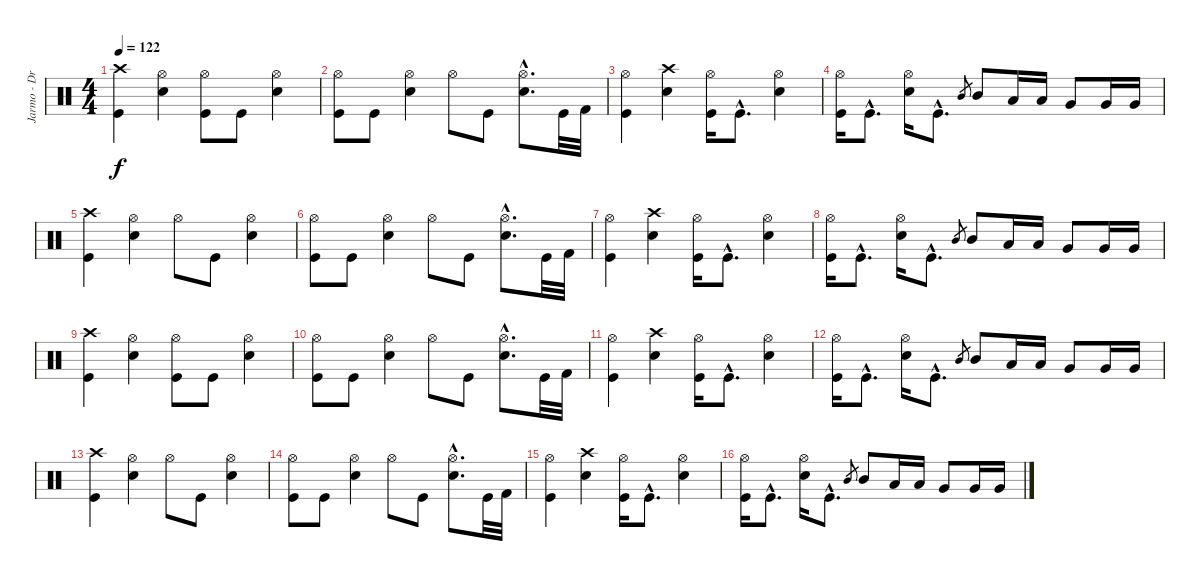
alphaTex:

\track ("Jarmo - Drums" "Jarmo - Dr") {instrument percussion}
\staff {score}
\articulation defaults
\ts (4 4)
\tempo 122
\clef neutral
\ks c
("Crash high (hit)" "Kick (hit)").4{dy f} ("Hi-Hat (open)" "Electric Snare (hit)").4 ("Hi-Hat (open)" "Kick (hit)").8 "Kick (hit)".8 ("Hi-Hat (open)" "Electric Snare (hit)").4 |
("Hi-Hat (open)" "Kick (hit)").8 "Kick (hit)".8 ("Hi-Hat (open)" "Electric Snare (hit)").4 "Hi-Hat (open)".8 "Kick (hit)".8 ("Hi-Hat (open)"{hac} "Electric Snare (hit)"{hac}).8{d} "Kick (hit)".32 "Kick (hit) 2".32 |
("Hi-Hat (open)" "Kick (hit)").4 ("Crash high (hit)" "Electric Snare (hit)").4 ("Hi-Hat (open)" "Kick (hit)").16 "Kick (hit)"{hac}.8{d} ("Hi-Hat (open)" "Electric Snare (hit)").4 |
("Hi-Hat (open)" "Kick (hit)").16 "Kick (hit)"{hac}.8{d} ("Hi-Hat (open)" "Electric Snare (hit)").16 "Kick (hit)"{hac}.8{d} "Mid Tom (hit)".8{gr} "Mid Tom (hit)".8 "Low Tom (hit)".16 "Low Tom (hit)".16 "Very Low Tom (hit)".8 "Very Low Tom (hit)".16 "Very Low Tom (hit)".16 |
("Crash high (hit)" "Kick (hit)").4 ("Hi-Hat (open)" "Electric Snare (hit)").4 "Hi-Hat (open)".8 "Kick (hit)".8 ("Hi-Hat (open)" "Electric Snare (hit)").4 |
("Hi-Hat (open)" "Kick (hit)").8 "Kick (hit)".8 ("Hi-Hat (open)" "Electric Snare (hit)").4 "Hi-Hat (open)".8 "Kick (hit)".8 ("Hi-Hat (open)"{hac} "Electric Snare (hit)"{hac}).8{d} "Kick (hit)".32 "Kick (hit) 2".32 |
("Hi-Hat (open)" "Kick (hit)").4 ("Crash high (hit)" "Electric Snare (hit)").4 ("Hi-Hat (open)" "Kick (hit)").16 "Kick (hit)"{hac}.8{d} ("Hi-Hat (open)" "Electric Snare (hit)").4 |
("Hi-Hat (open)" "Kick (hit)").16 "Kick (hit)"{hac}.8{d} ("Hi-Hat (open)" "Electric Snare (hit)").16 "Kick (hit)"{hac}.8{d} "Mid Tom (hit)".8{gr} "Mid Tom (hit)".8 "Low Tom (hit)".16 "Low Tom (hit)".16 "Very Low Tom (hit)".8 "Very Low Tom (hit)".16 "Very Low Tom (hit)".16 |
("Crash high (hit)" "Kick (hit)").4 ("Hi-Hat (open)" "Electric Snare (hit)").4 ("Hi-Hat (open)" "Kick (hit)").8 "Kick (hit)".8 ("Hi-Hat (open)" "Electric Snare (hit)").4 |
("Hi-Hat (open)" "Kick (hit)").8 "Kick (hit)".8 ("Hi-Hat (open)" "Electric Snare (hit)").4 "Hi-Hat (open)".8 "Kick (hit)".8 ("Hi-Hat (open)"{hac} "Electric Snare (hit)"{hac}).8{d} "Kick (hit)".32 "Kick (hit) 2".32 |
("Hi-Hat (open)" "Kick (hit)").4 ("Crash high (hit)" "Electric Snare (hit)").4 ("Hi-Hat (open)" "Kick (hit)").16 "Kick (hit)"{hac}.8{d} ("Hi-Hat (open)" "Electric Snare (hit)").4 |
("Hi-Hat (open)" "Kick (hit)").16 "Kick (hit)"{hac}.8{d} ("Hi-Hat (open)" "Electric Snare (hit)").16 "Kick (hit)"{hac}.8{d} "Mid Tom (hit)".8{gr} "Mid Tom (hit)".8 "Low Tom (hit)".16 "Low Tom (hit)".16 "Very Low Tom (hit)".8 "Very Low Tom (hit)".16 "Very Low Tom (hit)".16 |
("Crash high (hit)" "Kick (hit)").4 ("Hi-Hat (open)" "Electric Snare (hit)").4 "Hi-Hat (open)".8 "Kick (hit)".8 ("Hi-Hat (open)" "Electric Snare (hit)").4 |
("Hi-Hat (open)" "Kick (hit)").8 "Kick (hit)".8 ("Hi-Hat (open)" "Electric Snare (hit)").4 "Hi-Hat (open)".8 "Kick (hit)".8 ("Hi-Hat (open)"{hac} "Electric Snare (hit)"{hac}).8{d} "Kick (hit)".32 "Kick (hit) 2".32 |
("Hi-Hat (open)" "Kick (hit)").4 ("Crash high (hit)" "Electric Snare (hit)").4 ("Hi-Hat (open)" "Kick (hit)").16 "Kick (hit)"{hac}.8{d} ("Hi-Hat (open)" "Electric Snare (hit)").4 |
("Hi-Hat (open)" "Kick (hit)").16 "Kick (hit)"{hac}.8{d} ("Hi-Hat (open)" "Electric Snare (hit)").16 "Kick (hit)"{hac}.8{d} "Mid Tom (hit)".8{gr} "Mid Tom (hit)".8 "Low Tom (hit)".16 "Low Tom (hit)".16 "Very Low Tom (hit)".8 "Very Low Tom (hit)".16 "Very Low Tom (hit)".16
